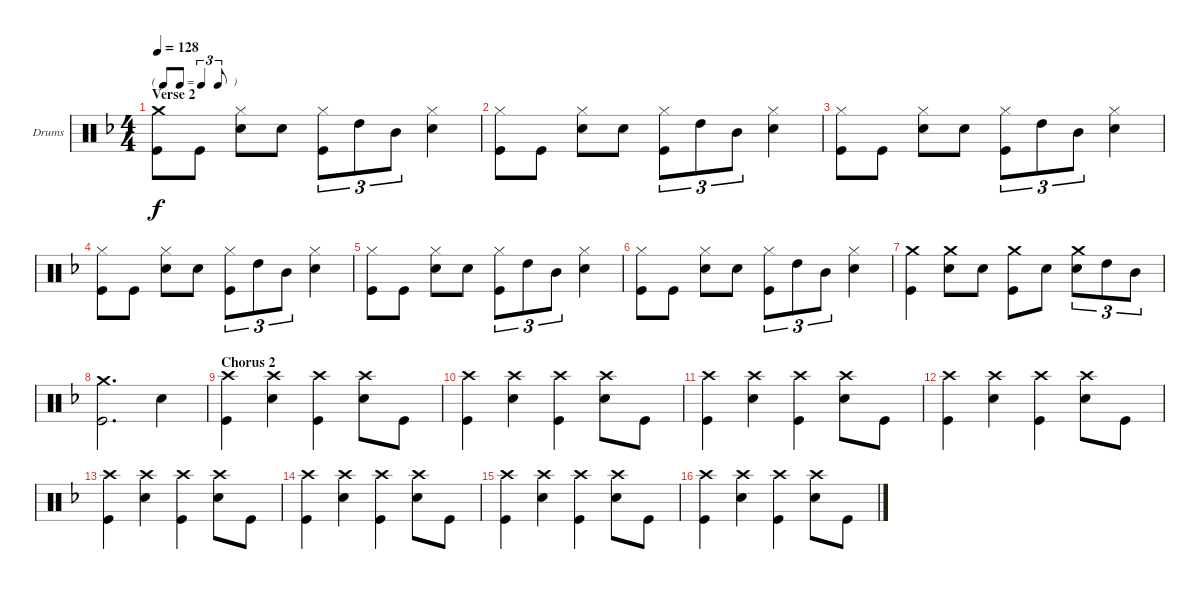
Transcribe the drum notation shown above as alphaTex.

\defaultSystemsLayout 4
\bracketExtendMode groupsimilarinstruments
\firstSystemTrackNameOrientation horizontal
\otherSystemsTrackNameOrientation horizontal
\track ("Drumkit" "Drums") {instrument percussion}
\staff {score}
\articulation defaults
\ts (4 4)
\tf triplet8th
\section ("" "Verse 2")
\tempo 128
\clef neutral
\scale
0.333333
\ks f
("Crash medium (hit)" "Kick (hit)").8{dy f} "Kick (hit)".8 ("Hi-Hat (closed)" "Snare (hit) 2").8 "Snare (hit) 2".8 ("Hi-Hat (closed)" "Kick (hit)").8{tu (3 2)} "High Tom (hit)".8{tu (3 2)} "Mid Tom (hit)".8{tu (3 2)} ("Hi-Hat (closed)" "Snare (hit) 2").4 |
\scale
0.333333 ("Kick (hit)" "Hi-Hat (closed)").8 "Kick (hit)".8 ("Hi-Hat (closed)" "Snare (hit) 2").8 "Snare (hit) 2".8 ("Hi-Hat (closed)" "Kick (hit)").8{tu (3 2)} "High Tom (hit)".8{tu (3 2)} "Mid Tom (hit)".8{tu (3 2)} ("Hi-Hat (closed)" "Snare (hit) 2").4 |
\scale
0.333333 ("Kick (hit)" "Hi-Hat (closed)").8 "Kick (hit)".8 ("Hi-Hat (closed)" "Snare (hit) 2").8 "Snare (hit) 2".8 ("Hi-Hat (closed)" "Kick (hit)").8{tu (3 2)} "High Tom (hit)".8{tu (3 2)} "Mid Tom (hit)".8{tu (3 2)} ("Hi-Hat (closed)" "Snare (hit) 2").4 |
\scale
0.333333 ("Kick (hit)" "Hi-Hat (closed)").8 "Kick (hit)".8 ("Hi-Hat (closed)" "Snare (hit) 2").8 "Snare (hit) 2".8 ("Hi-Hat (closed)" "Kick (hit)").8{tu (3 2)} "High Tom (hit)".8{tu (3 2)} "Mid Tom (hit)".8{tu (3 2)} ("Hi-Hat (closed)" "Snare (hit) 2").4 |
\scale
0.333333 ("Kick (hit)" "Hi-Hat (closed)").8 "Kick (hit)".8 ("Hi-Hat (closed)" "Snare (hit) 2").8 "Snare (hit) 2".8 ("Hi-Hat (closed)" "Kick (hit)").8{tu (3 2)} "High Tom (hit)".8{tu (3 2)} "Mid Tom (hit)".8{tu (3 2)} ("Hi-Hat (closed)" "Snare (hit) 2").4 |
\scale
0.333333 ("Kick (hit)" "Hi-Hat (closed)").8 "Kick (hit)".8 ("Hi-Hat (closed)" "Snare (hit) 2").8 "Snare (hit) 2".8 ("Hi-Hat (closed)" "Kick (hit)").8{tu (3 2)} "High Tom (hit)".8{tu (3 2)} "Mid Tom (hit)".8{tu (3 2)} ("Hi-Hat (closed)" "Snare (hit) 2").4 |
\scale
0.333333 ("Crash medium (hit)" "Kick (hit)").4 ("Crash medium (hit)" "Snare (hit) 2").8 "Snare (hit) 2".8 ("Crash medium (hit)" "Kick (hit)").8 "Snare (hit) 2".8 ("Snare (hit) 2" "Crash medium (hit)").8{tu (3 2)} "High Tom (hit)".8{tu (3 2)} "Mid Tom (hit)".8{tu (3 2)} |
\scale
0.333333 ("Kick (hit)" "Crash medium (hit)").2{d} "Snare (hit) 2".4 |
\section ("" "Chorus 2")
\scale
0.333333 ("Kick (hit)" "Crash high (hit)").4 ("Snare (hit) 2" "Crash high (hit)").4 ("Kick (hit)" "Crash high (hit)").4 ("Snare (hit) 2" "Crash high (hit)").8 "Kick (hit)".8 |
\scale
0.333333 ("Kick (hit)" "Crash high (hit)").4 ("Snare (hit) 2" "Crash high (hit)").4 ("Kick (hit)" "Crash high (hit)").4 ("Snare (hit) 2" "Crash high (hit)").8 "Kick (hit)".8 |
\scale
0.333333 ("Kick (hit)" "Crash high (hit)").4 ("Snare (hit) 2" "Crash high (hit)").4 ("Kick (hit)" "Crash high (hit)").4 ("Snare (hit) 2" "Crash high (hit)").8 "Kick (hit)".8 |
\scale
0.333333 ("Kick (hit)" "Crash high (hit)").4 ("Snare (hit) 2" "Crash high (hit)").4 ("Kick (hit)" "Crash high (hit)").4 ("Snare (hit) 2" "Crash high (hit)").8 "Kick (hit)".8 |
\scale
0.333333 ("Kick (hit)" "Crash high (hit)").4 ("Snare (hit) 2" "Crash high (hit)").4 ("Kick (hit)" "Crash high (hit)").4 ("Snare (hit) 2" "Crash high (hit)").8 "Kick (hit)".8 |
\scale
0.333333 ("Kick (hit)" "Crash high (hit)").4 ("Snare (hit) 2" "Crash high (hit)").4 ("Kick (hit)" "Crash high (hit)").4 ("Snare (hit) 2" "Crash high (hit)").8 "Kick (hit)".8 |
\scale
0.333333 ("Kick (hit)" "Crash high (hit)").4 ("Snare (hit) 2" "Crash high (hit)").4 ("Kick (hit)" "Crash high (hit)").4 ("Snare (hit) 2" "Crash high (hit)").8 "Kick (hit)".8 |
\scale
0.333333 ("Kick (hit)" "Crash high (hit)").4 ("Snare (hit) 2" "Crash high (hit)").4 ("Kick (hit)" "Crash high (hit)").4 ("Snare (hit) 2" "Crash high (hit)").8 "Kick (hit)".8
